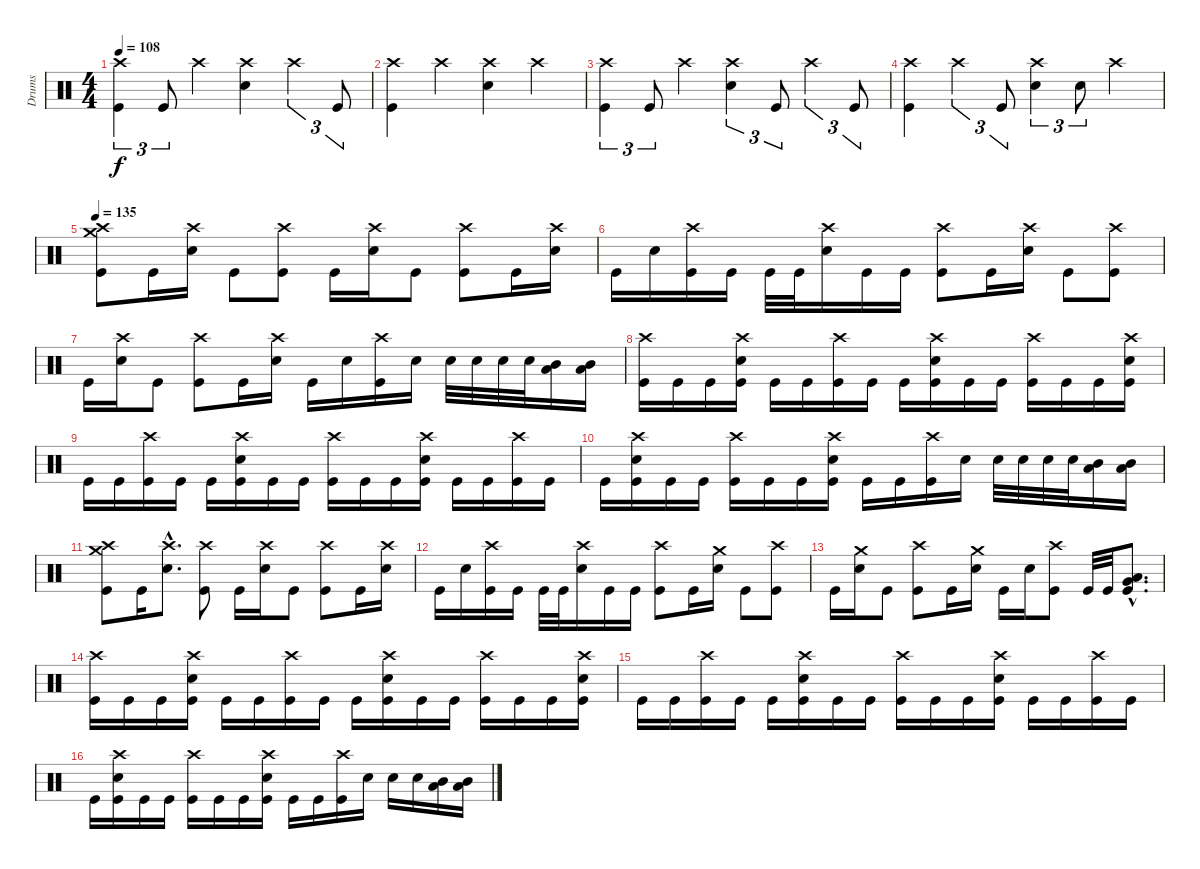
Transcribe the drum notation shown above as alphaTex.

\track ("Drums" "Drums") {instrument percussion}
\staff {score}
\articulation defaults
\ts (4 4)
\tempo 108
\clef neutral
\ks c
("Crash high (hit)" "Kick (hit)").4{tu (3 2) dy f} "Kick (hit)".8{tu (3 2)} "Crash high (hit)".4 ("Crash high (hit)" "Electric Snare (hit)").4 "Crash high (hit)".4{tu (3 2)} "Kick (hit)".8{tu (3 2)} |
("Crash high (hit)" "Kick (hit)").4 "Crash high (hit)".4 ("Crash high (hit)" "Electric Snare (hit)").4 "Crash high (hit)".4 |
("Crash high (hit)" "Kick (hit)").4{tu (3 2)} "Kick (hit)".8{tu (3 2)} "Crash high (hit)".4 ("Crash high (hit)" "Electric Snare (hit)").4{tu (3 2)} "Kick (hit)".8{tu (3 2)} "Crash high (hit)".4{tu (3 2)} "Kick (hit)".8{tu (3 2)} |
("Crash high (hit)" "Kick (hit)").4 "Crash high (hit)".4{tu (3 2)} "Kick (hit)".8{tu (3 2)} ("Crash high (hit)" "Electric Snare (hit)").4{tu (3 2)} "Electric Snare (hit)".8{tu (3 2)} "Crash high (hit)".4 |
\tempo 135
("Crash medium (hit)" "Crash high (hit)" "Kick (hit)").8 "Kick (hit)".16 ("Crash high (hit)" "Electric Snare (hit)").16 "Kick (hit)".8 ("Crash high (hit)" "Kick (hit)").8 "Kick (hit)".16 ("Crash high (hit)" "Electric Snare (hit)").16 "Kick (hit)".8 ("Crash high (hit)" "Kick (hit)").8 "Kick (hit)".16 ("Crash high (hit)" "Electric Snare (hit)").16 |
"Kick (hit)".16 "Electric Snare (hit)".16 ("Crash high (hit)" "Kick (hit)").16 "Kick (hit)".16 "Kick (hit)".32 "Kick (hit)".32 ("Crash high (hit)" "Electric Snare (hit)").16 "Kick (hit)".16 "Kick (hit)".16 ("Crash high (hit)" "Kick (hit)").8 "Kick (hit)".16 ("Crash high (hit)" "Electric Snare (hit)").16 "Kick (hit)".8 ("Crash high (hit)" "Kick (hit)").8 |
"Kick (hit)".16 ("Crash high (hit)" "Electric Snare (hit)").16 "Kick (hit)".8 ("Crash high (hit)" "Kick (hit)").8 "Kick (hit)".16 ("Crash high (hit)" "Electric Snare (hit)").16 "Kick (hit)".16 "Electric Snare (hit)".16 ("Crash high (hit)" "Kick (hit)").16 "Electric Snare (hit)".16 "Electric Snare (hit)".32 "Electric Snare (hit)".32 "Electric Snare (hit)".32 "Electric Snare (hit)".32 ("Mid Tom (hit)" "Low Tom (hit)").16 ("Mid Tom (hit)" "Low Tom (hit)").16 |
("Crash high (hit)" "Kick (hit)").16 "Kick (hit)".16 "Kick (hit)".16 ("Crash high (hit)" "Electric Snare (hit)" "Kick (hit)").16 "Kick (hit)".16 "Kick (hit)".16 ("Crash high (hit)" "Kick (hit)").16 "Kick (hit)".16 "Kick (hit)".16 ("Crash high (hit)" "Electric Snare (hit)" "Kick (hit)").16 "Kick (hit)".16 "Kick (hit)".16 ("Crash high (hit)" "Kick (hit)").16 "Kick (hit)".16 "Kick (hit)".16 ("Crash high (hit)" "Electric Snare (hit)" "Kick (hit)").16 |
"Kick (hit)".16 "Kick (hit)".16 ("Crash high (hit)" "Kick (hit)").16 "Kick (hit)".16 "Kick (hit)".16 ("Crash high (hit)" "Electric Snare (hit)" "Kick (hit)").16 "Kick (hit)".16 "Kick (hit)".16 ("Crash high (hit)" "Kick (hit)").16 "Kick (hit)".16 "Kick (hit)".16 ("Crash high (hit)" "Electric Snare (hit)" "Kick (hit)").16 "Kick (hit)".16 "Kick (hit)".16 ("Crash high (hit)" "Kick (hit)").16 "Kick (hit)".16 |
"Kick (hit)".16 ("Crash high (hit)" "Electric Snare (hit)" "Kick (hit)").16 "Kick (hit)".16 "Kick (hit)".16 ("Crash high (hit)" "Kick (hit)").16 "Kick (hit)".16 "Kick (hit)".16 ("Crash high (hit)" "Electric Snare (hit)" "Kick (hit)").16 "Kick (hit)".16 "Kick (hit)".16 ("Crash high (hit)" "Kick (hit)").16 "Electric Snare (hit)".16 "Electric Snare (hit)".32 "Electric Snare (hit)".32 "Electric Snare (hit)".32 "Electric Snare (hit)".32 ("Mid Tom (hit)" "Low Tom (hit)").16 ("Mid Tom (hit)" "Low Tom (hit)").16 |
("Crash medium (hit)" "Crash high (hit)" "Kick (hit)").8 "Kick (hit)".16 ("Crash high (hit)"{hac} "Electric Snare (hit)"{hac}).8{d} ("Crash high (hit)" "Kick (hit)").8 "Kick (hit)".16 ("Crash high (hit)" "Electric Snare (hit)").16 "Kick (hit)".8 ("Crash high (hit)" "Kick (hit)").8 "Kick (hit)".16 ("Crash high (hit)" "Electric Snare (hit)").16 |
"Kick (hit)".16 "Electric Snare (hit)".16 ("Crash high (hit)" "Kick (hit)").16 "Kick (hit)".16 "Kick (hit)".32 "Kick (hit)".32 ("Crash high (hit)" "Electric Snare (hit)").16 "Kick (hit)".16 "Kick (hit)".16 ("Crash high (hit)" "Kick (hit)").8 "Kick (hit)".16 ("Crash medium (hit)" "Electric Snare (hit)").16 "Kick (hit)".8 ("Crash high (hit)" "Kick (hit)").8 |
"Kick (hit)".16 ("Crash medium (hit)" "Electric Snare (hit)").16 "Kick (hit)".8 ("Crash high (hit)" "Kick (hit)").8 "Kick (hit)".16 ("Crash medium (hit)" "Electric Snare (hit)").16 "Kick (hit)".16 "Electric Snare (hit)".16 ("Crash high (hit)" "Kick (hit)").8 "Kick (hit)".32 "Kick (hit)".32 ("Low Tom (hit)"{hac} "Very Low Tom (hit)"{hac} "Kick (hit)"{hac}).8{d} |
("Crash high (hit)" "Kick (hit)").16 "Kick (hit)".16 "Kick (hit)".16 ("Crash high (hit)" "Electric Snare (hit)" "Kick (hit)").16 "Kick (hit)".16 "Kick (hit)".16 ("Crash high (hit)" "Kick (hit)").16 "Kick (hit)".16 "Kick (hit)".16 ("Crash high (hit)" "Electric Snare (hit)" "Kick (hit)").16 "Kick (hit)".16 "Kick (hit)".16 ("Crash high (hit)" "Kick (hit)").16 "Kick (hit)".16 "Kick (hit)".16 ("Crash high (hit)" "Electric Snare (hit)" "Kick (hit)").16 |
"Kick (hit)".16 "Kick (hit)".16 ("Crash high (hit)" "Kick (hit)").16 "Kick (hit)".16 "Kick (hit)".16 ("Crash high (hit)" "Electric Snare (hit)" "Kick (hit)").16 "Kick (hit)".16 "Kick (hit)".16 ("Crash high (hit)" "Kick (hit)").16 "Kick (hit)".16 "Kick (hit)".16 ("Crash high (hit)" "Electric Snare (hit)" "Kick (hit)").16 "Kick (hit)".16 "Kick (hit)".16 ("Crash high (hit)" "Kick (hit)").16 "Kick (hit)".16 |
"Kick (hit)".16 ("Crash high (hit)" "Electric Snare (hit)" "Kick (hit)").16 "Kick (hit)".16 "Kick (hit)".16 ("Crash high (hit)" "Kick (hit)").16 "Kick (hit)".16 "Kick (hit)".16 ("Crash high (hit)" "Electric Snare (hit)" "Kick (hit)").16 "Kick (hit)".16 "Kick (hit)".16 ("Crash high (hit)" "Kick (hit)").16 "Electric Snare (hit)".16 "Electric Snare (hit)".16 "Electric Snare (hit)".16 ("Mid Tom (hit)" "Low Tom (hit)").16 ("Mid Tom (hit)" "Low Tom (hit)").16
